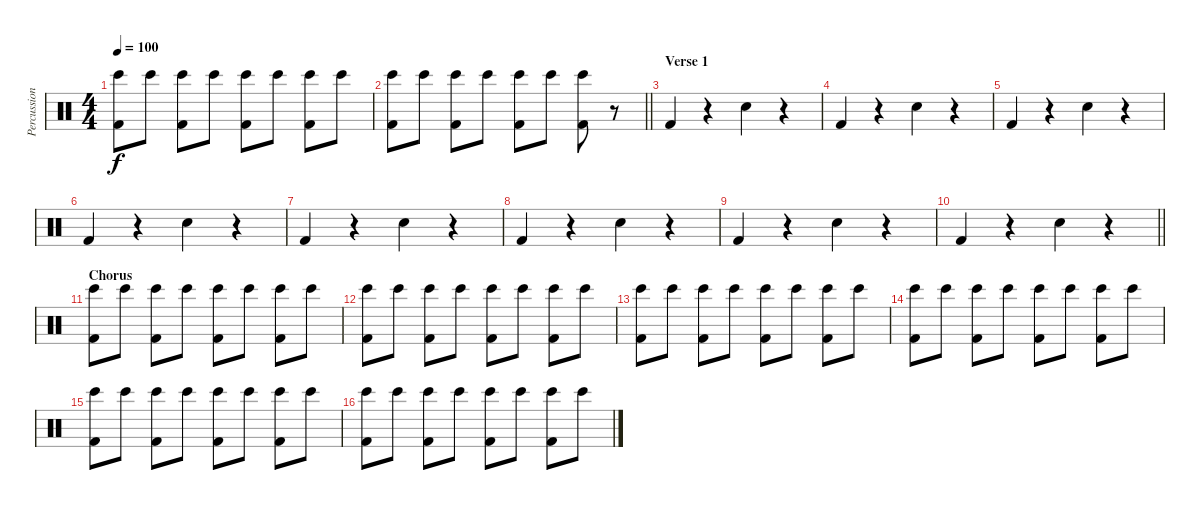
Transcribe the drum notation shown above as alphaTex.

\track ("Percussion" "Percussion") {instrument percussion}
\staff {score}
\articulation defaults
\ts (4 4)
\tempo 100
\clef neutral
\ks c
("Bongo High (hit)" "Kick (hit) 2").8{dy f} "Bongo High (hit)".8 ("Bongo High (hit)" "Kick (hit) 2").8 "Bongo High (hit)".8 ("Bongo High (hit)" "Kick (hit) 2").8 "Bongo High (hit)".8 ("Bongo High (hit)" "Kick (hit) 2").8 "Bongo High (hit)".8 |
\barLineRight lightlight
("Bongo High (hit)" "Kick (hit) 2").8 "Bongo High (hit)".8 ("Bongo High (hit)" "Kick (hit) 2").8 "Bongo High (hit)".8 ("Bongo High (hit)" "Kick (hit) 2").8 "Bongo High (hit)".8 ("Bongo High (hit)" "Kick (hit) 2").8 r.8 |
\section ("" "Verse 1")
"Kick (hit) 2".4 r.4 "Snare (hit) 2".4 r.4 |
"Kick (hit) 2".4 r.4 "Snare (hit) 2".4 r.4 |
"Kick (hit) 2".4 r.4 "Snare (hit) 2".4 r.4 |
"Kick (hit) 2".4 r.4 "Snare (hit) 2".4 r.4 |
"Kick (hit) 2".4 r.4 "Snare (hit) 2".4 r.4 |
"Kick (hit) 2".4 r.4 "Snare (hit) 2".4 r.4 |
"Kick (hit) 2".4 r.4 "Snare (hit) 2".4 r.4 |
\barLineRight lightlight "Kick (hit) 2".4
r.4 "Snare (hit) 2".4 r.4 |
\section ("" "Chorus")
("Bongo High (hit)" "Kick (hit) 2").8 "Bongo High (hit)".8 ("Bongo High (hit)" "Kick (hit) 2").8 "Bongo High (hit)".8 ("Bongo High (hit)" "Kick (hit) 2").8 "Bongo High (hit)".8 ("Bongo High (hit)" "Kick (hit) 2").8 "Bongo High (hit)".8 |
("Bongo High (hit)" "Kick (hit) 2").8 "Bongo High (hit)".8 ("Bongo High (hit)" "Kick (hit) 2").8 "Bongo High (hit)".8 ("Bongo High (hit)" "Kick (hit) 2").8 "Bongo High (hit)".8 ("Bongo High (hit)" "Kick (hit) 2").8 "Bongo High (hit)".8 |
("Bongo High (hit)" "Kick (hit) 2").8 "Bongo High (hit)".8 ("Bongo High (hit)" "Kick (hit) 2").8 "Bongo High (hit)".8 ("Bongo High (hit)" "Kick (hit) 2").8 "Bongo High (hit)".8 ("Bongo High (hit)" "Kick (hit) 2").8 "Bongo High (hit)".8 |
("Bongo High (hit)" "Kick (hit) 2").8 "Bongo High (hit)".8 ("Bongo High (hit)" "Kick (hit) 2").8 "Bongo High (hit)".8 ("Bongo High (hit)" "Kick (hit) 2").8 "Bongo High (hit)".8 ("Bongo High (hit)" "Kick (hit) 2").8 "Bongo High (hit)".8 |
("Bongo High (hit)" "Kick (hit) 2").8 "Bongo High (hit)".8 ("Bongo High (hit)" "Kick (hit) 2").8 "Bongo High (hit)".8 ("Bongo High (hit)" "Kick (hit) 2").8 "Bongo High (hit)".8 ("Bongo High (hit)" "Kick (hit) 2").8 "Bongo High (hit)".8 |
("Bongo High (hit)" "Kick (hit) 2").8 "Bongo High (hit)".8 ("Bongo High (hit)" "Kick (hit) 2").8 "Bongo High (hit)".8 ("Bongo High (hit)" "Kick (hit) 2").8 "Bongo High (hit)".8 ("Bongo High (hit)" "Kick (hit) 2").8 "Bongo High (hit)".8
